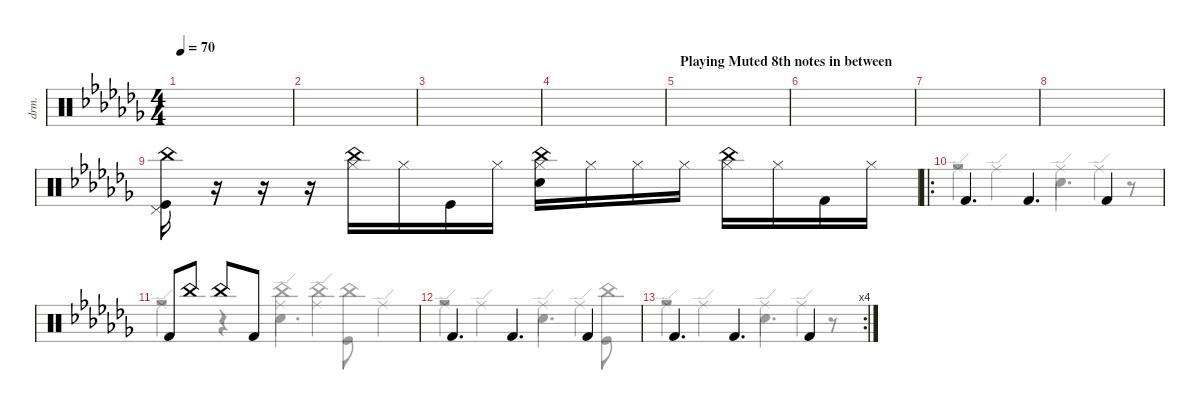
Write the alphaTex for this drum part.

\defaultSystemsLayout 4
\hideDynamics
\bracketExtendMode nobrackets
\track ("Drumkit" "drm.") {instrument percussion}
\staff {score}
\articulation defaults
\voice
\ts (4 4)
\section ("" "")
\tempo 70
\clef neutral
\ks abminor
|
|
|
|
\section ("" "Playing Muted 8th notes in between")
|
|
|
|
("China (hit)"{acc forcenatural} "Pedal Hi-Hat (hit)"{acc forcenatural} "Kick (hit)"{acc forcenatural}).16 r.16 r.16 r.16 ("Hi-Hat (closed)"{acc forcenatural} "China (hit)"{acc forcenatural}).16 "Hi-Hat (closed)"{acc forcenatural}.16 "Kick (hit)"{acc forcenatural}.16 "Hi-Hat (closed)"{acc forcenatural}.16 ("Hi-Hat (closed)"{acc forcenatural} "Snare (hit) 2"{acc forcenatural} "China (hit)"{acc forcenatural}).16 "Hi-Hat (closed)"{acc forcenatural}.16 "Hi-Hat (closed)"{acc forcenatural}.16 "Hi-Hat (closed)"{acc forcenatural}.16 ("Hi-Hat (closed)"{acc forcenatural} "China (hit)"{acc forcenatural}).16 "Hi-Hat (closed)"{acc forcenatural}.16 "Kick (hit) 2"{acc forcenatural}.16 "Hi-Hat (closed)"{acc forcenatural}.16 |
\ro "Kick (hit) 2"{acc forcenatural}.4{d} "Kick (hit) 2"{acc forcenatural}.4{d} "Kick (hit) 2"{acc forcenatural}.4
|
"Kick (hit) 2"{acc forcenatural}.8 "China (hit)"{acc forcenatural}.8 "China (hit)"{acc forcenatural}.8 "Kick (hit) 2"{acc forcenatural}.8 |
"Kick (hit) 2"{acc forcenatural}.4{d} "Kick (hit) 2"{acc forcenatural}.4{d} "Kick (hit) 2"{acc forcenatural}.4 |
\rc 4 "Kick (hit) 2"{acc forcenatural}.4{d} "Kick (hit) 2"{acc forcenatural}.4{d} "Kick (hit) 2"{acc forcenatural}.4
\voice
\clef neutral
\ottava regular
\simile none
\ks abminor
|
|
|
|
|
|
|
|
|
r.2 "Snare (hit) 2"{acc forcenatural}.4{d} r.8 |
r.2 "Snare (hit) 2"{acc forcenatural}.4{d} ("Kick (hit)"{acc forcenatural} "China (hit)"{acc forcenatural}).8 |
r.2 "Snare (hit) 2"{acc forcenatural}.4{d} ("Kick (hit)"{acc forcenatural} "China (hit)"{acc forcenatural}).8 |
r.2 "Snare (hit) 2"{acc forcenatural}.4{d} r.8
\voice
\clef neutral
\ottava regular
\simile none
\ks abminor
|
|
|
|
|
|
|
|
|
"Ride (edge)"{acc forcenatural}.4 "Ride (edge)"{acc forcenatural}.4 "Ride (edge)"{acc forcenatural}.4 "Ride (edge)"{acc forcenatural}.4 |
"Ride (edge)"{acc forcenatural}.4 r.4 ("Ride (edge)"{acc forcenatural} "China (hit)"{acc forcenatural}).4 ("Ride (edge)"{acc forcenatural} "China (hit)"{acc forcenatural}).4 "Ride (edge)"{acc forcenatural}.4 |
"Ride (edge)"{acc forcenatural}.4 "Ride (edge)"{acc forcenatural}.4 "Ride (edge)"{acc forcenatural}.4 "Ride (edge)"{acc forcenatural}.4 |
"Ride (edge)"{acc forcenatural}.4 "Ride (edge)"{acc forcenatural}.4 "Ride (edge)"{acc forcenatural}.4 "Ride (edge)"{acc forcenatural}.4
